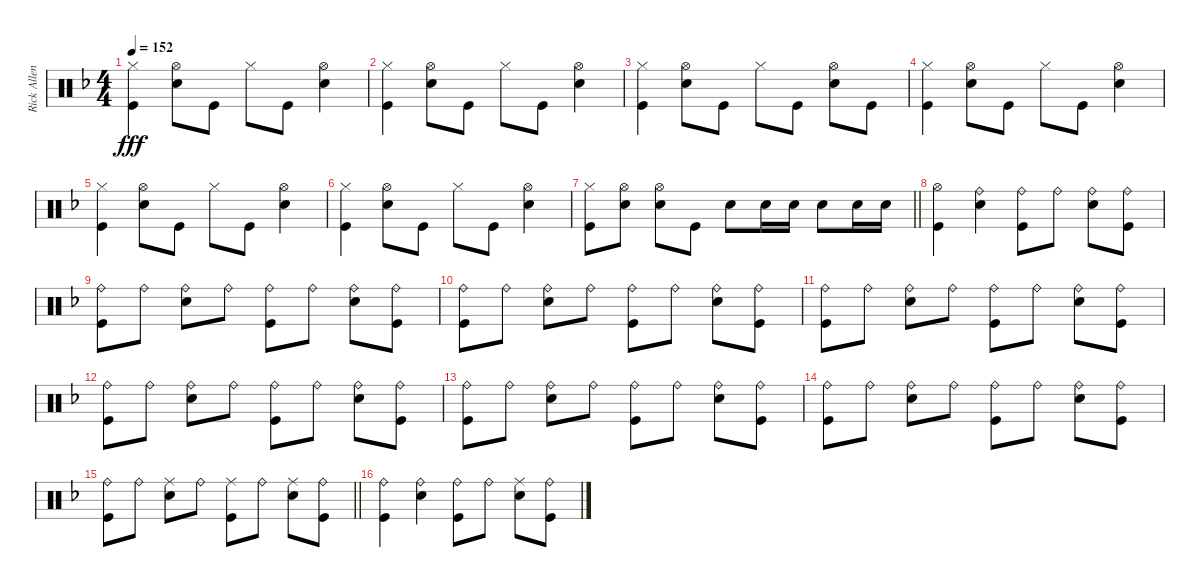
\track ("Rick Allen" "Rick Allen") {instrument percussion}
\staff {score}
\articulation defaults
\ts (4 4)
\tempo 152
\clef neutral
\ks dminor
("Hi-Hat (closed)" "Kick (hit)").4{dy fff} ("Hi-Hat (open)" "Snare (hit) 2").8 "Kick (hit)".8 "Hi-Hat (closed)".8 "Kick (hit)".8 ("Hi-Hat (open)" "Snare (hit) 2").4 |
("Hi-Hat (closed)" "Kick (hit)").4 ("Hi-Hat (open)" "Snare (hit) 2").8 "Kick (hit)".8 "Hi-Hat (closed)".8 "Kick (hit)".8 ("Hi-Hat (open)" "Snare (hit) 2").4 |
("Hi-Hat (closed)" "Kick (hit)").4 ("Hi-Hat (open)" "Snare (hit) 2").8 "Kick (hit)".8 "Hi-Hat (closed)".8 "Kick (hit)".8 ("Hi-Hat (open)" "Snare (hit) 2").8 "Kick (hit)".8 |
("Hi-Hat (closed)" "Kick (hit)").4 ("Hi-Hat (open)" "Snare (hit) 2").8 "Kick (hit)".8 "Hi-Hat (closed)".8 "Kick (hit)".8 ("Hi-Hat (open)" "Snare (hit) 2").4 |
("Hi-Hat (closed)" "Kick (hit)").4 ("Hi-Hat (open)" "Snare (hit) 2").8 "Kick (hit)".8 "Hi-Hat (closed)".8 "Kick (hit)".8 ("Hi-Hat (open)" "Snare (hit) 2").4 |
("Hi-Hat (closed)" "Kick (hit)").4 ("Hi-Hat (open)" "Snare (hit) 2").8 "Kick (hit)".8 "Hi-Hat (closed)".8 "Kick (hit)".8 ("Hi-Hat (open)" "Snare (hit) 2").4 |
\barLineRight lightlight
("Hi-Hat (closed)" "Kick (hit)").8 ("Hi-Hat (open)" "Snare (hit) 2").8 ("Hi-Hat (open)" "Snare (hit) 2").8 "Kick (hit)".8 "Snare (hit) 2".8 "Snare (hit) 2".16 "Snare (hit) 2".16 "Snare (hit) 2".8 "Snare (hit) 2".16 "Snare (hit) 2".16 |
("Hi-Hat (open)" "Kick (hit)").4 ("Ride (bell)" "Snare (hit) 2").4 ("Ride (bell)" "Kick (hit)").8 "Ride (bell)".8 ("Ride (bell)" "Snare (hit) 2").8 ("Ride (bell)" "Kick (hit)").8 |
("Ride (bell)" "Kick (hit)").8 "Ride (bell)".8 ("Ride (bell)" "Snare (hit) 2").8 "Ride (bell)".8 ("Ride (bell)" "Kick (hit)").8 "Ride (bell)".8 ("Ride (bell)" "Snare (hit) 2").8 ("Ride (bell)" "Kick (hit)").8 |
("Ride (bell)" "Kick (hit)").8 "Ride (bell)".8 ("Ride (bell)" "Snare (hit) 2").8 "Ride (bell)".8 ("Ride (bell)" "Kick (hit)").8 "Ride (bell)".8 ("Ride (bell)" "Snare (hit) 2").8 ("Ride (bell)" "Kick (hit)").8 |
("Ride (bell)" "Kick (hit)").8 "Ride (bell)".8 ("Ride (bell)" "Snare (hit) 2").8 "Ride (bell)".8 ("Ride (bell)" "Kick (hit)").8 "Ride (bell)".8 ("Ride (bell)" "Snare (hit) 2").8 ("Ride (bell)" "Kick (hit)").8 |
("Ride (bell)" "Kick (hit)").8 "Ride (bell)".8 ("Ride (bell)" "Snare (hit) 2").8 "Ride (bell)".8 ("Ride (bell)" "Kick (hit)").8 "Ride (bell)".8 ("Ride (bell)" "Snare (hit) 2").8 ("Ride (bell)" "Kick (hit)").8 |
("Ride (bell)" "Kick (hit)").8 "Ride (bell)".8 ("Ride (bell)" "Snare (hit) 2").8 "Ride (bell)".8 ("Ride (bell)" "Kick (hit)").8 "Ride (bell)".8 ("Ride (bell)" "Snare (hit) 2").8 ("Ride (bell)" "Kick (hit)").8 |
("Ride (bell)" "Kick (hit)").8 "Ride (bell)".8 ("Ride (bell)" "Snare (hit) 2").8 "Ride (bell)".8 ("Ride (bell)" "Kick (hit)").8 "Ride (bell)".8 ("Ride (bell)" "Snare (hit) 2").8 ("Ride (bell)" "Kick (hit)").8 |
\barLineRight lightlight
("Ride (bell)" "Kick (hit)").8 "Ride (bell)".8 ("Ride (middle)" "Snare (hit) 2").8 "Ride (bell)".8 ("Ride (middle)" "Kick (hit)").8 "Ride (bell)".8 ("Ride (middle)" "Snare (hit) 2").8 ("Ride (bell)" "Kick (hit)").8 |
("Ride (bell)" "Kick (hit)").4 ("Ride (bell)" "Snare (hit) 2").4 ("Ride (bell)" "Kick (hit)").8 "Ride (bell)".8 ("Ride (middle)" "Snare (hit) 2").8 ("Ride (bell)" "Kick (hit)").8
